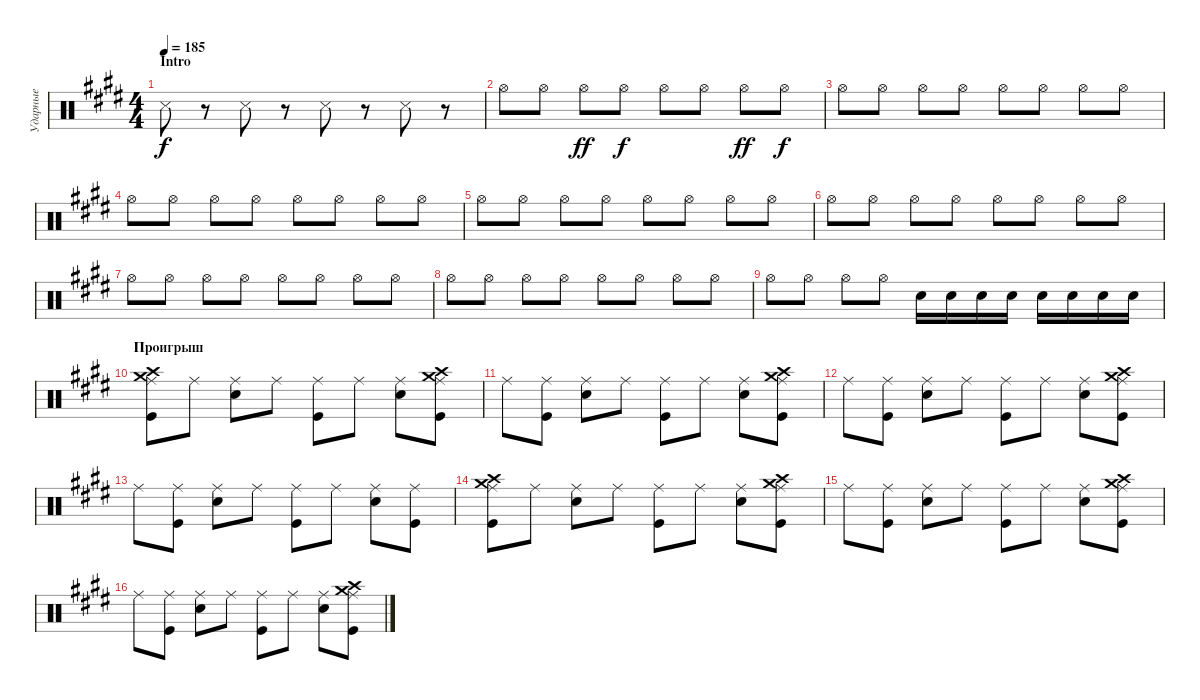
\track ("Ударные" "Ударные") {instrument percussion}
\staff {score}
\articulation defaults
\ts (4 4)
\section ("" "Intro")
\tempo 185
\clef neutral
\ks c#minor "Snare (side stick) 3".8{dy f}
r.8 "Snare (side stick) 3".8 r.8 "Snare (side stick) 3".8 r.8 "Snare (side stick) 3".8 r.8 |
"Hi-Hat (open)".8 "Hi-Hat (open)".8 "Hi-Hat (open)".8{dy ff} "Hi-Hat (open)".8{dy f} "Hi-Hat (open)".8 "Hi-Hat (open)".8 "Hi-Hat (open)".8{dy ff} "Hi-Hat (open)".8{dy f} |
"Hi-Hat (open)".8 "Hi-Hat (open)".8 "Hi-Hat (open)".8 "Hi-Hat (open)".8 "Hi-Hat (open)".8 "Hi-Hat (open)".8 "Hi-Hat (open)".8 "Hi-Hat (open)".8 |
"Hi-Hat (open)".8 "Hi-Hat (open)".8 "Hi-Hat (open)".8 "Hi-Hat (open)".8 "Hi-Hat (open)".8 "Hi-Hat (open)".8 "Hi-Hat (open)".8 "Hi-Hat (open)".8 |
"Hi-Hat (open)".8 "Hi-Hat (open)".8 "Hi-Hat (open)".8 "Hi-Hat (open)".8 "Hi-Hat (open)".8 "Hi-Hat (open)".8 "Hi-Hat (open)".8 "Hi-Hat (open)".8 |
"Hi-Hat (open)".8 "Hi-Hat (open)".8 "Hi-Hat (open)".8 "Hi-Hat (open)".8 "Hi-Hat (open)".8 "Hi-Hat (open)".8 "Hi-Hat (open)".8 "Hi-Hat (open)".8 |
"Hi-Hat (open)".8 "Hi-Hat (open)".8 "Hi-Hat (open)".8 "Hi-Hat (open)".8 "Hi-Hat (open)".8 "Hi-Hat (open)".8 "Hi-Hat (open)".8 "Hi-Hat (open)".8 |
"Hi-Hat (open)".8 "Hi-Hat (open)".8 "Hi-Hat (open)".8 "Hi-Hat (open)".8 "Hi-Hat (open)".8 "Hi-Hat (open)".8 "Hi-Hat (open)".8 "Hi-Hat (open)".8 |
"Hi-Hat (open)".8 "Hi-Hat (open)".8 "Hi-Hat (open)".8 "Hi-Hat (open)".8 "Electric Snare (hit)".16 "Electric Snare (hit)".16 "Electric Snare (hit)".16 "Electric Snare (hit)".16 "Electric Snare (hit)".16 "Electric Snare (hit)".16 "Electric Snare (hit)".16 "Electric Snare (hit)".16 |
\section ("" "Проигрыш")
("Ride (middle)" "Kick (hit)" "Crash high (hit)" "Crash medium (hit)").8 "Ride (middle)".8 ("Electric Snare (hit)" "Ride (middle)").8 "Ride (middle)".8 ("Ride (middle)" "Kick (hit)").8 "Ride (middle)".8 ("Ride (middle)" "Electric Snare (hit)").8 ("Ride (middle)" "Kick (hit)" "Crash high (hit)" "Crash medium (hit)").8 |
"Ride (middle)".8 ("Ride (middle)" "Kick (hit)").8 ("Ride (middle)" "Electric Snare (hit)").8 "Ride (middle)".8 ("Kick (hit)" "Ride (middle)").8 "Ride (middle)".8 ("Electric Snare (hit)" "Ride (middle)").8 ("Crash medium (hit)" "Ride (middle)" "Kick (hit)" "Crash high (hit)").8 |
"Ride (middle)".8 ("Ride (middle)" "Kick (hit)").8 ("Ride (middle)" "Electric Snare (hit)").8 "Ride (middle)".8 ("Kick (hit)" "Ride (middle)").8 "Ride (middle)".8 ("Electric Snare (hit)" "Ride (middle)").8 ("Crash medium (hit)" "Ride (middle)" "Kick (hit)" "Crash high (hit)").8 |
"Ride (middle)".8 ("Ride (middle)" "Kick (hit)").8 ("Ride (middle)" "Electric Snare (hit)").8 "Ride (middle)".8 ("Kick (hit)" "Ride (middle)").8 "Ride (middle)".8 ("Electric Snare (hit)" "Ride (middle)").8 ("Ride (middle)" "Kick (hit)").8 |
("Ride (middle)" "Kick (hit)" "Crash high (hit)" "Crash medium (hit)").8 "Ride (middle)".8 ("Electric Snare (hit)" "Ride (middle)").8 "Ride (middle)".8 ("Ride (middle)" "Kick (hit)").8 "Ride (middle)".8 ("Ride (middle)" "Electric Snare (hit)").8 ("Ride (middle)" "Kick (hit)" "Crash high (hit)" "Crash medium (hit)").8 |
"Ride (middle)".8 ("Ride (middle)" "Kick (hit)").8 ("Ride (middle)" "Electric Snare (hit)").8 "Ride (middle)".8 ("Kick (hit)" "Ride (middle)").8 "Ride (middle)".8 ("Electric Snare (hit)" "Ride (middle)").8 ("Crash medium (hit)" "Ride (middle)" "Kick (hit)" "Crash high (hit)").8 |
"Ride (middle)".8 ("Ride (middle)" "Kick (hit)").8 ("Ride (middle)" "Electric Snare (hit)").8 "Ride (middle)".8 ("Kick (hit)" "Ride (middle)").8 "Ride (middle)".8 ("Electric Snare (hit)" "Ride (middle)").8 ("Crash medium (hit)" "Ride (middle)" "Kick (hit)" "Crash high (hit)").8
